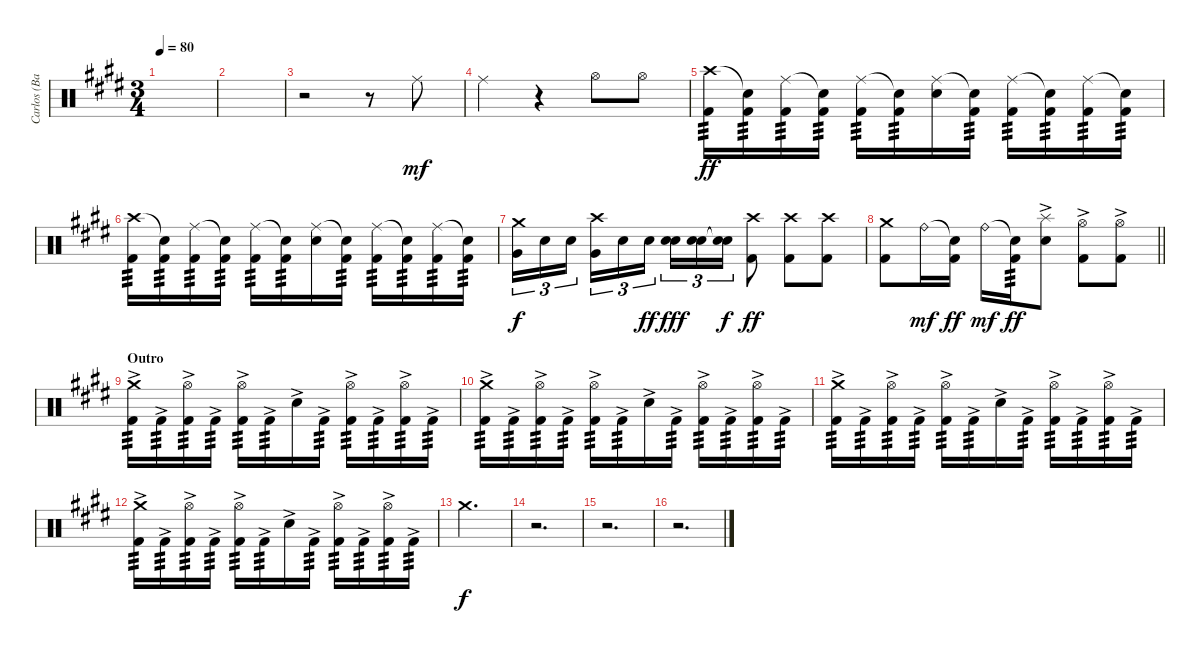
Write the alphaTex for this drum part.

\track ("Carlos (Batería)" "Carlos (Ba") {instrument percussion}
\staff
\articulation defaults
\ts (3 4)
\tempo 80
\clef neutral
\ks c#minor
|
|
r.2 r.8 "Ride (middle)".8{dy mf} |
"Ride (middle)".4 r.4 "Hi-Hat (open)".8 "Hi-Hat (open)".8 |
("Crash high (hit)" "Kick (hit) 2").16{tp 3 dy ff} ("Snare (hit)"{t} "Kick (hit) 2").16{tp 3} ("Ride (middle)" "Kick (hit) 2").16{tp 3} ("Snare (hit)"{t} "Kick (hit) 2").16{tp 3} ("Ride (middle)" "Kick (hit) 2").16{tp 3} ("Snare (hit)"{t} "Kick (hit) 2").16{tp 3} ("Ride (middle)" "Snare (hit) 2").16 ("Snare (hit)"{t} "Kick (hit) 2").16{tp 3} ("Ride (middle)" "Kick (hit) 2").16{tp 3} ("Snare (hit)"{t} "Kick (hit) 2").16{tp 3} ("Ride (middle)" "Kick (hit) 2").16{tp 3} ("Snare (hit)"{t} "Kick (hit) 2").16{tp 3} |
("Crash high (hit)" "Kick (hit) 2").16{tp 3} ("Snare (hit)"{t} "Kick (hit) 2").16{tp 3} ("Ride (middle)" "Kick (hit) 2").16{tp 3} ("Snare (hit)"{t} "Kick (hit) 2").16{tp 3} ("Ride (middle)" "Kick (hit) 2").16{tp 3} ("Snare (hit)"{t} "Kick (hit) 2").16{tp 3} ("Ride (middle)" "Snare (hit) 2").16 ("Snare (hit)"{t} "Kick (hit) 2").16{tp 3} ("Ride (middle)" "Kick (hit) 2").16{tp 3} ("Snare (hit)"{t} "Kick (hit) 2").16{tp 3} ("Ride (middle)" "Kick (hit) 2").16{tp 3} ("Snare (hit)"{t} "Kick (hit) 2").16{tp 3} |
("Crash medium (hit)" "Very Low Tom (hit)").16{tu (3 2) dy f} "Snare (hit) 2".16{tu (3 2)} "Snare (hit) 2".16{tu (3 2) beam splitsecondary} ("Crash high (hit)" "Very Low Tom (hit)").16{tu (3 2)} "Snare (hit) 2".16{tu (3 2)} "Snare (hit) 2".16{tu (3 2) dy ff} ("Snare (hit) 2" "Snare (hit) 2").16{tu (3 2) dy fff} ("Snare (hit) 2" "Snare (hit) 2").16{tu (3 2)} ("Snare (hit)"{t} "Snare (hit)"{t}).16{tu (3 2) dy f} ("Crash high (hit)" "Kick (hit) 2").8{dy ff} ("Crash high (hit)" "Kick (hit) 2").8 ("Crash high (hit)" "Kick (hit) 2").8 |
\barLineRight lightlight
("Crash medium (hit)" "Kick (hit) 2").8 "Ride (bell)".16{dy mf} ("Snare (hit)"{t} "Kick (hit) 2").16{dy ff} "Ride (bell)".16{dy mf} ("Snare (hit)"{t} "Kick (hit) 2").16{tp 3 dy ff} ("Splash (hit)" "Snare (hit) 2"{ac}).8 ("Hi-Hat (open)" "Kick (hit) 2"{ac}).8 ("Hi-Hat (open)" "Kick (hit) 2"{ac}).8 |
\section ("" "Outro")
("Crash medium (hit)" "Kick (hit) 2"{ac}).16{tp 3} "Kick (hit) 2"{ac}.16{tp 3} ("Hi-Hat (open)" "Kick (hit) 2"{ac}).16{tp 3} "Kick (hit) 2"{ac}.16{tp 3} ("Hi-Hat (open)" "Kick (hit) 2"{ac}).16{tp 3} "Kick (hit) 2"{ac}.16{tp 3} "Snare (hit) 2"{ac}.16 "Kick (hit) 2"{ac}.16{tp 3} ("Hi-Hat (open)" "Kick (hit) 2"{ac}).16{tp 3} "Kick (hit) 2"{ac}.16{tp 3} ("Hi-Hat (open)" "Kick (hit) 2"{ac}).16{tp 3} "Kick (hit) 2"{ac}.16{tp 3} |
("Crash medium (hit)" "Kick (hit) 2"{ac}).16{tp 3} "Kick (hit) 2"{ac}.16{tp 3} ("Hi-Hat (open)" "Kick (hit) 2"{ac}).16{tp 3} "Kick (hit) 2"{ac}.16{tp 3} ("Hi-Hat (open)" "Kick (hit) 2"{ac}).16{tp 3} "Kick (hit) 2"{ac}.16{tp 3} "Snare (hit) 2"{ac}.16 "Kick (hit) 2"{ac}.16{tp 3} ("Hi-Hat (open)" "Kick (hit) 2"{ac}).16{tp 3} "Kick (hit) 2"{ac}.16{tp 3} ("Hi-Hat (open)" "Kick (hit) 2"{ac}).16{tp 3} "Kick (hit) 2"{ac}.16{tp 3} |
("Crash medium (hit)" "Kick (hit) 2"{ac}).16{tp 3} "Kick (hit) 2"{ac}.16{tp 3} ("Hi-Hat (open)" "Kick (hit) 2"{ac}).16{tp 3} "Kick (hit) 2"{ac}.16{tp 3} ("Hi-Hat (open)" "Kick (hit) 2"{ac}).16{tp 3} "Kick (hit) 2"{ac}.16{tp 3} "Snare (hit) 2"{ac}.16 "Kick (hit) 2"{ac}.16{tp 3} ("Hi-Hat (open)" "Kick (hit) 2"{ac}).16{tp 3} "Kick (hit) 2"{ac}.16{tp 3} ("Hi-Hat (open)" "Kick (hit) 2"{ac}).16{tp 3} "Kick (hit) 2"{ac}.16{tp 3} |
("Crash medium (hit)" "Kick (hit) 2"{ac}).16{tp 3} "Kick (hit) 2"{ac}.16{tp 3} ("Hi-Hat (open)" "Kick (hit) 2"{ac}).16{tp 3} "Kick (hit) 2"{ac}.16{tp 3} ("Hi-Hat (open)" "Kick (hit) 2"{ac}).16{tp 3} "Kick (hit) 2"{ac}.16{tp 3} "Snare (hit) 2"{ac}.16 "Kick (hit) 2"{ac}.16{tp 3} ("Hi-Hat (open)" "Kick (hit) 2"{ac}).16{tp 3} "Kick (hit) 2"{ac}.16{tp 3} ("Hi-Hat (open)" "Kick (hit) 2"{ac}).16{tp 3} "Kick (hit) 2"{ac}.16{tp 3} |
"Crash medium (hit)".2{d dy f} |
r.2{d} |
r.2{d} |
r.2{d}
